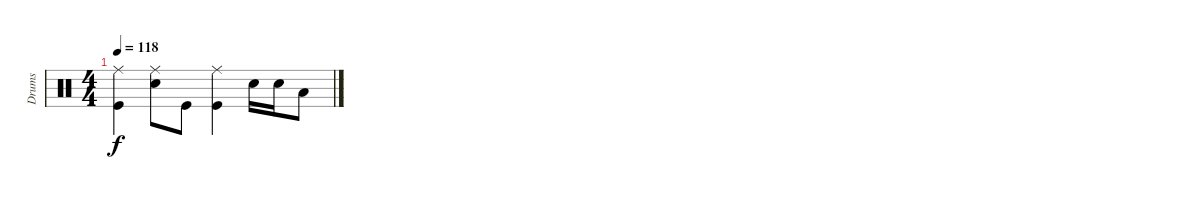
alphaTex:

\track ("Drums" "Drums") {instrument percussion}
\staff {score}
\articulation defaults
\ts (4 4)
\tempo 118
\clef neutral
\ks c
("Ride (middle)" "Kick (hit)").4{dy f} ("Ride (middle)" "Electric Snare (hit)").8 "Kick (hit)".8 ("Ride (middle)" "Kick (hit)").4 "Electric Snare (hit)".16 "Electric Snare (hit)".16 "Low Tom (hit)".8
